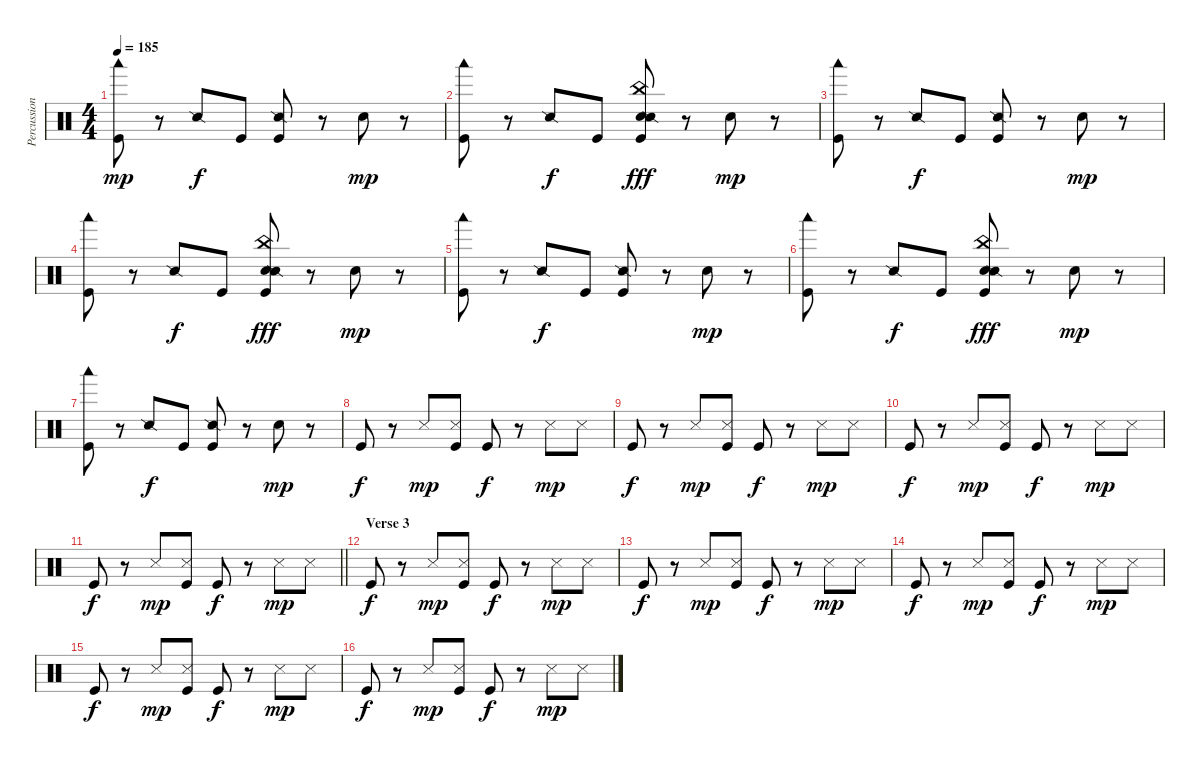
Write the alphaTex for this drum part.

\track ("Percussion" "Percussion") {instrument percussion}
\staff {score}
\articulation defaults
\ts (4 4)
\tempo 185
\clef neutral
\ks c
("Woodblock low (hit)" "Kick (hit)").8{dy mp} r.8 "Snare (side stick) 2".8{dy f} "Kick (hit)".8 ("Snare (side stick) 2" "Kick (hit)").8 r.8 "Electric Snare (hit)".8{dy mp} r.8 |
("Woodblock low (hit)" "Kick (hit)").8 r.8 "Snare (side stick) 2".8{dy f} "Kick (hit)".8 ("China (hit)" "Snare (hit) 2" "Snare (side stick) 2" "Kick (hit)").8{dy fff} r.8 "Electric Snare (hit)".8{dy mp} r.8 |
("Woodblock low (hit)" "Kick (hit)").8 r.8 "Snare (side stick) 2".8{dy f} "Kick (hit)".8 ("Snare (side stick) 2" "Kick (hit)").8 r.8 "Electric Snare (hit)".8{dy mp} r.8 |
("Woodblock low (hit)" "Kick (hit)").8 r.8 "Snare (side stick) 2".8{dy f} "Kick (hit)".8 ("China (hit)" "Snare (hit) 2" "Snare (side stick) 2" "Kick (hit)").8{dy fff} r.8 "Electric Snare (hit)".8{dy mp} r.8 |
("Woodblock low (hit)" "Kick (hit)").8 r.8 "Snare (side stick) 2".8{dy f} "Kick (hit)".8 ("Snare (side stick) 2" "Kick (hit)").8 r.8 "Electric Snare (hit)".8{dy mp} r.8 |
("Woodblock low (hit)" "Kick (hit)").8 r.8 "Snare (side stick) 2".8{dy f} "Kick (hit)".8 ("China (hit)" "Snare (hit) 2" "Snare (side stick) 2" "Kick (hit)").8{dy fff} r.8 "Electric Snare (hit)".8{dy mp} r.8 |
("Woodblock low (hit)" "Kick (hit)").8 r.8 "Snare (side stick) 2".8{dy f} "Kick (hit)".8 ("Snare (side stick) 2" "Kick (hit)").8 r.8 "Electric Snare (hit)".8{dy mp} r.8 |
"Kick (hit)".8{dy f} r.8 "Metronome (hit)".8{dy mp} ("Metronome (hit)" "Kick (hit)").8 "Kick (hit)".8{dy f} r.8 "Snare (side stick) 3".8{dy mp} "Snare (side stick) 3".8 |
"Kick (hit)".8{dy f} r.8 "Metronome (hit)".8{dy mp} ("Metronome (hit)" "Kick (hit)").8 "Kick (hit)".8{dy f} r.8 "Snare (side stick) 3".8{dy mp} "Snare (side stick) 3".8 |
"Kick (hit)".8{dy f} r.8 "Metronome (hit)".8{dy mp} ("Metronome (hit)" "Kick (hit)").8 "Kick (hit)".8{dy f} r.8 "Snare (side stick) 3".8{dy mp} "Snare (side stick) 3".8 |
\barLineRight lightlight "Kick (hit)".8{dy f}
r.8 "Metronome (hit)".8{dy mp} ("Metronome (hit)" "Kick (hit)").8 "Kick (hit)".8{dy f} r.8 "Snare (side stick) 3".8{dy mp} "Snare (side stick) 3".8 |
\section ("" "Verse 3")
"Kick (hit)".8{dy f} r.8 "Metronome (hit)".8{dy mp} ("Metronome (hit)" "Kick (hit)").8 "Kick (hit)".8{dy f} r.8 "Snare (side stick) 3".8{dy mp} "Snare (side stick) 3".8 |
"Kick (hit)".8{dy f} r.8 "Metronome (hit)".8{dy mp} ("Metronome (hit)" "Kick (hit)").8 "Kick (hit)".8{dy f} r.8 "Snare (side stick) 3".8{dy mp} "Snare (side stick) 3".8 |
"Kick (hit)".8{dy f} r.8 "Metronome (hit)".8{dy mp} ("Metronome (hit)" "Kick (hit)").8 "Kick (hit)".8{dy f} r.8 "Snare (side stick) 3".8{dy mp} "Snare (side stick) 3".8 |
"Kick (hit)".8{dy f} r.8 "Metronome (hit)".8{dy mp} ("Metronome (hit)" "Kick (hit)").8 "Kick (hit)".8{dy f} r.8 "Snare (side stick) 3".8{dy mp} "Snare (side stick) 3".8 |
"Kick (hit)".8{dy f} r.8 "Metronome (hit)".8{dy mp} ("Metronome (hit)" "Kick (hit)").8 "Kick (hit)".8{dy f} r.8 "Snare (side stick) 3".8{dy mp} "Snare (side stick) 3".8
